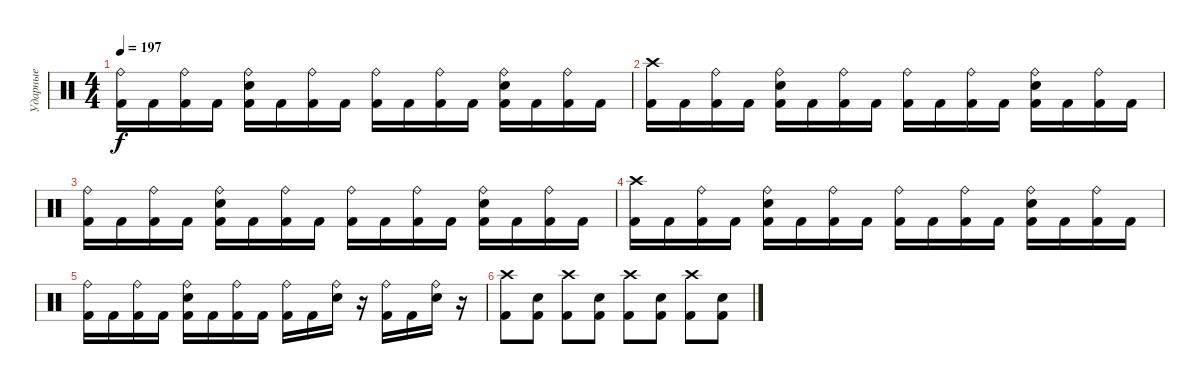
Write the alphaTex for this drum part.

\track ("Ударные" "Ударные") {instrument percussion}
\staff {score}
\articulation defaults
\ts (4 4)
\tempo 197
\clef neutral
\ks c
("Ride (bell)" "Kick (hit) 2").16{dy f} "Kick (hit) 2".16 ("Ride (bell)" "Kick (hit) 2").16 "Kick (hit) 2".16 ("Ride (bell)" "Snare (hit) 2" "Kick (hit) 2").16 "Kick (hit) 2".16 ("Ride (bell)" "Kick (hit) 2").16 "Kick (hit) 2".16 ("Ride (bell)" "Kick (hit) 2").16 "Kick (hit) 2".16 ("Ride (bell)" "Kick (hit) 2").16 "Kick (hit) 2".16 ("Ride (bell)" "Snare (hit) 2" "Kick (hit) 2").16 "Kick (hit) 2".16 ("Ride (bell)" "Kick (hit) 2").16 "Kick (hit) 2".16 |
("Crash high (hit)" "Kick (hit) 2").16 "Kick (hit) 2".16 ("Ride (bell)" "Kick (hit) 2").16 "Kick (hit) 2".16 ("Ride (bell)" "Snare (hit) 2" "Kick (hit) 2").16 "Kick (hit) 2".16 ("Ride (bell)" "Kick (hit) 2").16 "Kick (hit) 2".16 ("Ride (bell)" "Kick (hit) 2").16 "Kick (hit) 2".16 ("Ride (bell)" "Kick (hit) 2").16 "Kick (hit) 2".16 ("Ride (bell)" "Snare (hit) 2" "Kick (hit) 2").16 "Kick (hit) 2".16 ("Ride (bell)" "Kick (hit) 2").16 "Kick (hit) 2".16 |
("Ride (bell)" "Kick (hit) 2").16 "Kick (hit) 2".16 ("Ride (bell)" "Kick (hit) 2").16 "Kick (hit) 2".16 ("Ride (bell)" "Snare (hit) 2" "Kick (hit) 2").16 "Kick (hit) 2".16 ("Ride (bell)" "Kick (hit) 2").16 "Kick (hit) 2".16 ("Ride (bell)" "Kick (hit) 2").16 "Kick (hit) 2".16 ("Ride (bell)" "Kick (hit) 2").16 "Kick (hit) 2".16 ("Ride (bell)" "Snare (hit) 2" "Kick (hit) 2").16 "Kick (hit) 2".16 ("Ride (bell)" "Kick (hit) 2").16 "Kick (hit) 2".16 |
("Crash high (hit)" "Kick (hit) 2").16 "Kick (hit) 2".16 ("Ride (bell)" "Kick (hit) 2").16 "Kick (hit) 2".16 ("Ride (bell)" "Snare (hit) 2" "Kick (hit) 2").16 "Kick (hit) 2".16 ("Ride (bell)" "Kick (hit) 2").16 "Kick (hit) 2".16 ("Ride (bell)" "Kick (hit) 2").16 "Kick (hit) 2".16 ("Ride (bell)" "Kick (hit) 2").16 "Kick (hit) 2".16 ("Ride (bell)" "Snare (hit) 2" "Kick (hit) 2").16 "Kick (hit) 2".16 ("Ride (bell)" "Kick (hit) 2").16 "Kick (hit) 2".16 |
("Ride (bell)" "Kick (hit) 2").16 "Kick (hit) 2".16 ("Ride (bell)" "Kick (hit) 2").16 "Kick (hit) 2".16 ("Ride (bell)" "Snare (hit) 2" "Kick (hit) 2").16 "Kick (hit) 2".16 ("Ride (bell)" "Kick (hit) 2").16 "Kick (hit) 2".16 ("Ride (bell)" "Kick (hit) 2").16 "Kick (hit) 2".16 ("Ride (bell)" "Snare (hit) 2").16 r.16 ("Ride (bell)" "Kick (hit) 2").16 "Kick (hit) 2".16 ("Ride (bell)" "Snare (hit) 2").16 r.16 |
("Crash high (hit)" "Kick (hit) 2").8 ("Snare (hit) 2" "Kick (hit) 2").8 ("Crash high (hit)" "Kick (hit) 2").8 ("Snare (hit) 2" "Kick (hit) 2").8 ("Crash high (hit)" "Kick (hit) 2").8 ("Snare (hit) 2" "Kick (hit) 2").8 ("Crash high (hit)" "Kick (hit) 2").8 ("Snare (hit) 2" "Kick (hit) 2").8
